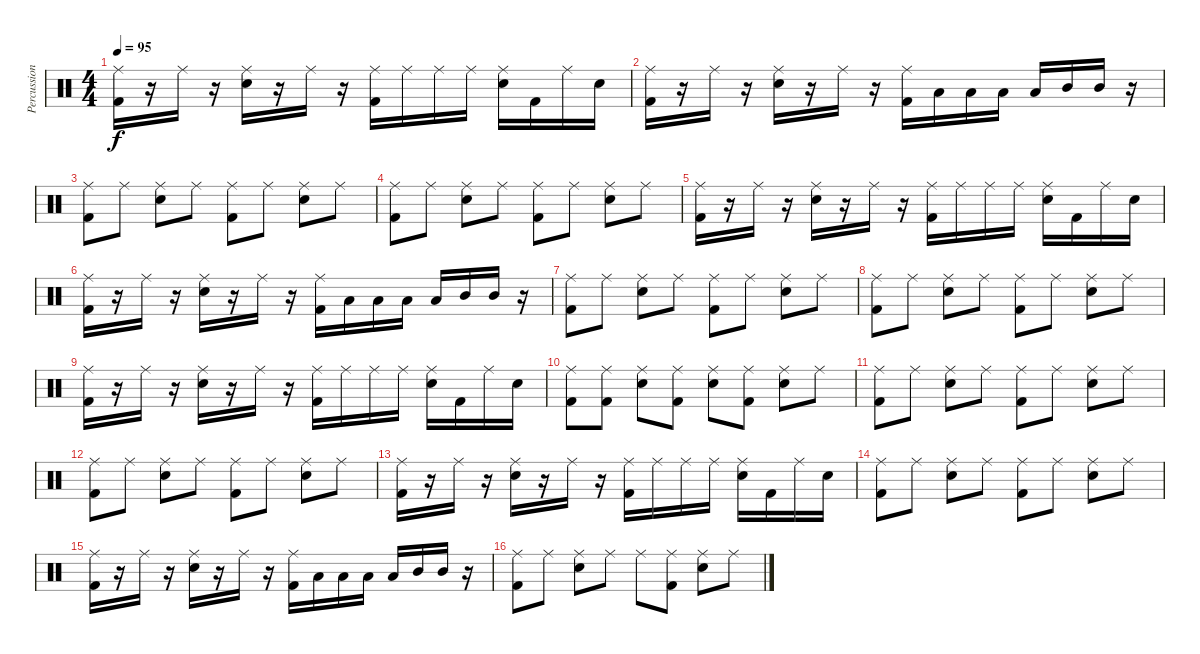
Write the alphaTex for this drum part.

\track ("Percussion" "Percussion") {instrument percussion}
\staff
\articulation defaults
\ts (4 4)
\tempo 95
\clef neutral
\ks c
("Ride (middle)" "Kick (hit) 2").16{dy f} r.16 "Ride (middle)".16 r.16 ("Ride (middle)" "Electric Snare (hit)").16 r.16 "Ride (middle)".16 r.16 ("Ride (middle)" "Kick (hit) 2").16 "Ride (middle)".16 "Ride (middle)".16 "Ride (middle)".16 ("Ride (middle)" "Electric Snare (hit)").16 "Kick (hit) 2".16 "Ride (middle)".16 "Electric Snare (hit)".16 |
("Ride (middle)" "Kick (hit) 2").16 r.16 "Ride (middle)".16 r.16 ("Ride (middle)" "Electric Snare (hit)").16 r.16 "Ride (middle)".16 r.16 ("Ride (middle)" "Kick (hit) 2").16 "Low Floor Tom (hit)".16 "Low Floor Tom (hit)".16 "Low Tom (hit)".16 "Low Tom (hit)".16 "Mid Tom (hit)".16 "Mid Tom (hit)".16 r.16 |
("Ride (middle)" "Kick (hit) 2").8 "Ride (middle)".8 ("Ride (middle)" "Electric Snare (hit)").8 "Ride (middle)".8 ("Ride (middle)" "Kick (hit) 2").8 "Ride (middle)".8 ("Ride (middle)" "Electric Snare (hit)").8 "Ride (middle)".8 |
("Ride (middle)" "Kick (hit) 2").8 "Ride (middle)".8 ("Ride (middle)" "Electric Snare (hit)").8 "Ride (middle)".8 ("Ride (middle)" "Kick (hit) 2").8 "Ride (middle)".8 ("Ride (middle)" "Electric Snare (hit)").8 "Ride (middle)".8 |
("Ride (middle)" "Kick (hit) 2").16 r.16 "Ride (middle)".16 r.16 ("Ride (middle)" "Electric Snare (hit)").16 r.16 "Ride (middle)".16 r.16 ("Ride (middle)" "Kick (hit) 2").16 "Ride (middle)".16 "Ride (middle)".16 "Ride (middle)".16 ("Ride (middle)" "Electric Snare (hit)").16 "Kick (hit) 2".16 "Ride (middle)".16 "Electric Snare (hit)".16 |
("Ride (middle)" "Kick (hit) 2").16 r.16 "Ride (middle)".16 r.16 ("Ride (middle)" "Electric Snare (hit)").16 r.16 "Ride (middle)".16 r.16 ("Ride (middle)" "Kick (hit) 2").16 "Low Floor Tom (hit)".16 "Low Floor Tom (hit)".16 "Low Tom (hit)".16 "Low Tom (hit)".16 "Mid Tom (hit)".16 "Mid Tom (hit)".16 r.16 |
("Ride (middle)" "Kick (hit) 2").8 "Ride (middle)".8 ("Ride (middle)" "Electric Snare (hit)").8 "Ride (middle)".8 ("Ride (middle)" "Kick (hit) 2").8 "Ride (middle)".8 ("Ride (middle)" "Electric Snare (hit)").8 "Ride (middle)".8 |
("Ride (middle)" "Kick (hit) 2").8 "Ride (middle)".8 ("Ride (middle)" "Electric Snare (hit)").8 "Ride (middle)".8 ("Ride (middle)" "Kick (hit) 2").8 "Ride (middle)".8 ("Ride (middle)" "Electric Snare (hit)").8 "Ride (middle)".8 |
("Ride (middle)" "Kick (hit) 2").16 r.16 "Ride (middle)".16 r.16 ("Ride (middle)" "Electric Snare (hit)").16 r.16 "Ride (middle)".16 r.16 ("Ride (middle)" "Kick (hit) 2").16 "Ride (middle)".16 "Ride (middle)".16 "Ride (middle)".16 ("Ride (middle)" "Electric Snare (hit)").16 "Kick (hit) 2".16 "Ride (middle)".16 "Electric Snare (hit)".16 |
("Ride (middle)" "Kick (hit) 2").8 ("Ride (middle)" "Kick (hit) 2").8 ("Ride (middle)" "Electric Snare (hit)").8 ("Ride (middle)" "Kick (hit) 2").8 ("Ride (middle)" "Electric Snare (hit)").8 ("Ride (middle)" "Kick (hit) 2").8 ("Ride (middle)" "Electric Snare (hit)").8 "Ride (middle)".8 |
("Ride (middle)" "Kick (hit) 2").8 "Ride (middle)".8 ("Ride (middle)" "Electric Snare (hit)").8 "Ride (middle)".8 ("Ride (middle)" "Kick (hit) 2").8 "Ride (middle)".8 ("Ride (middle)" "Electric Snare (hit)").8 "Ride (middle)".8 |
("Ride (middle)" "Kick (hit) 2").8 "Ride (middle)".8 ("Ride (middle)" "Electric Snare (hit)").8 "Ride (middle)".8 ("Ride (middle)" "Kick (hit) 2").8 "Ride (middle)".8 ("Ride (middle)" "Electric Snare (hit)").8 "Ride (middle)".8 |
("Ride (middle)" "Kick (hit) 2").16 r.16 "Ride (middle)".16 r.16 ("Ride (middle)" "Electric Snare (hit)").16 r.16 "Ride (middle)".16 r.16 ("Ride (middle)" "Kick (hit) 2").16 "Ride (middle)".16 "Ride (middle)".16 "Ride (middle)".16 ("Ride (middle)" "Electric Snare (hit)").16 "Kick (hit) 2".16 "Ride (middle)".16 "Electric Snare (hit)".16 |
("Ride (middle)" "Kick (hit) 2").8 "Ride (middle)".8 ("Ride (middle)" "Electric Snare (hit)").8 "Ride (middle)".8 ("Ride (middle)" "Kick (hit) 2").8 "Ride (middle)".8 ("Ride (middle)" "Electric Snare (hit)").8 "Ride (middle)".8 |
("Ride (middle)" "Kick (hit) 2").16 r.16 "Ride (middle)".16 r.16 ("Ride (middle)" "Electric Snare (hit)").16 r.16 "Ride (middle)".16 r.16 ("Ride (middle)" "Kick (hit) 2").16 "Low Floor Tom (hit)".16 "Low Floor Tom (hit)".16 "Low Tom (hit)".16 "Low Tom (hit)".16 "Mid Tom (hit)".16 "Mid Tom (hit)".16 r.16 |
("Ride (middle)" "Kick (hit) 2").8 "Ride (middle)".8 ("Ride (middle)" "Electric Snare (hit)").8 "Ride (middle)".8 "Ride (middle)".8 ("Ride (middle)" "Kick (hit) 2").8 ("Ride (middle)" "Electric Snare (hit)").8 "Ride (middle)".8
